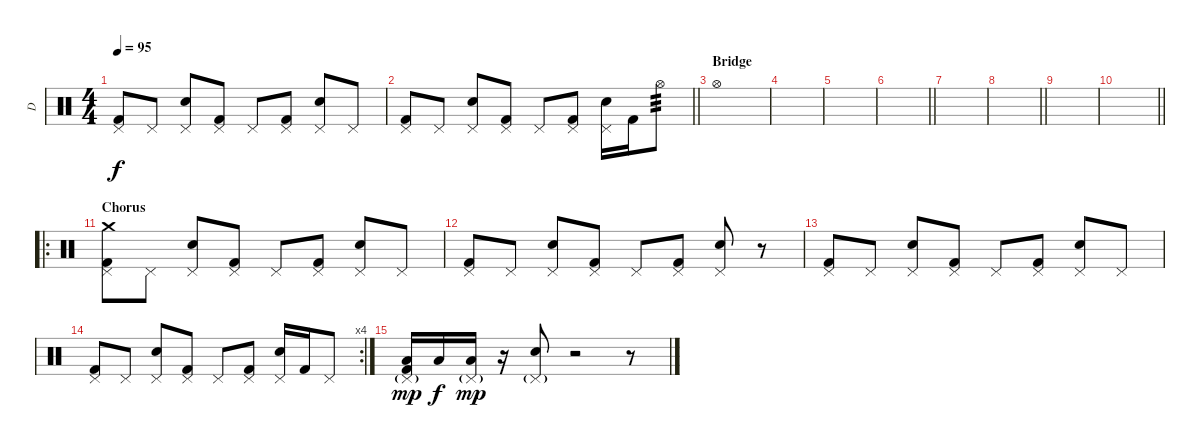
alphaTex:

\track ("D" "D") {instrument percussion}
\staff {score}
\articulation defaults
\ts (4 4)
\tempo 95
\clef neutral
\ks c
("Kick (hit) 2" "Pedal Hi-Hat (hit)").8{dy f} "Pedal Hi-Hat (hit)".8 ("Electric Snare (hit)" "Pedal Hi-Hat (hit)").8 ("Kick (hit) 2" "Pedal Hi-Hat (hit)").8 "Pedal Hi-Hat (hit)".8 ("Kick (hit) 2" "Pedal Hi-Hat (hit)").8 ("Electric Snare (hit)" "Pedal Hi-Hat (hit)").8 "Pedal Hi-Hat (hit)".8 |
\barLineRight lightlight
("Kick (hit) 2" "Pedal Hi-Hat (hit)").8 "Pedal Hi-Hat (hit)".8 ("Electric Snare (hit)" "Pedal Hi-Hat (hit)").8 ("Kick (hit) 2" "Pedal Hi-Hat (hit)").8 "Pedal Hi-Hat (hit)".8 ("Kick (hit) 2" "Pedal Hi-Hat (hit)").8 ("Electric Snare (hit)" "Pedal Hi-Hat (hit)").16 "Kick (hit) 2".16 "Hi-Hat (open)".8{tp 3} |
\section ("" "Bridge ")
"Hi-Hat (open)".1 |
|
|
\barLineRight lightlight
|
|
\barLineRight lightlight
|
|
\barLineRight lightlight
|
\ro
\section ("" "Chorus")
("Crash medium (hit)" "Kick (hit) 2" "Pedal Hi-Hat (hit)").8 "Pedal Hi-Hat (hit)".8 ("Electric Snare (hit)" "Pedal Hi-Hat (hit)").8 ("Kick (hit) 2" "Pedal Hi-Hat (hit)").8 "Pedal Hi-Hat (hit)".8 ("Kick (hit) 2" "Pedal Hi-Hat (hit)").8 ("Electric Snare (hit)" "Pedal Hi-Hat (hit)").8 "Pedal Hi-Hat (hit)".8 |
("Kick (hit) 2" "Pedal Hi-Hat (hit)").8 "Pedal Hi-Hat (hit)".8 ("Electric Snare (hit)" "Pedal Hi-Hat (hit)").8 ("Kick (hit) 2" "Pedal Hi-Hat (hit)").8 "Pedal Hi-Hat (hit)".8 ("Kick (hit) 2" "Pedal Hi-Hat (hit)").8 ("Electric Snare (hit)" "Pedal Hi-Hat (hit)").8 r.8 |
("Kick (hit) 2" "Pedal Hi-Hat (hit)").8 "Pedal Hi-Hat (hit)".8 ("Electric Snare (hit)" "Pedal Hi-Hat (hit)").8 ("Kick (hit) 2" "Pedal Hi-Hat (hit)").8 "Pedal Hi-Hat (hit)".8 ("Kick (hit) 2" "Pedal Hi-Hat (hit)").8 ("Electric Snare (hit)" "Pedal Hi-Hat (hit)").8 "Pedal Hi-Hat (hit)".8 |
\rc 4
("Kick (hit) 2" "Pedal Hi-Hat (hit)").8 "Pedal Hi-Hat (hit)".8 ("Electric Snare (hit)" "Pedal Hi-Hat (hit)").8 ("Kick (hit) 2" "Pedal Hi-Hat (hit)").8 "Pedal Hi-Hat (hit)".8 ("Kick (hit) 2" "Pedal Hi-Hat (hit)").8 ("Electric Snare (hit)" "Pedal Hi-Hat (hit)").16 "Kick (hit) 2".16 "Pedal Hi-Hat (hit)".8 |
("Low Tom (hit)" "Kick (hit) 2" "Pedal Hi-Hat (hit)"{g}).16{dy mp} "Low Tom (hit)".16{dy f} ("Low Tom (hit)" "Pedal Hi-Hat (hit)"{g}).16{dy mp} r.16 ("Electric Snare (hit)" "Pedal Hi-Hat (hit)"{g}).8 r.2 r.8
